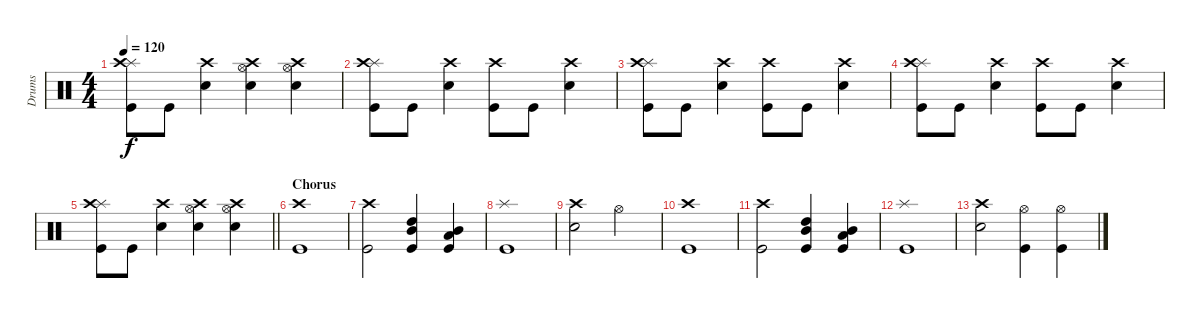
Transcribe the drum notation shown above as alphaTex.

\track ("Drums" "Drums") {instrument percussion}
\staff {score}
\articulation defaults
\ts (4 4)
\tempo 120
\clef neutral
\ks c
("Splash (hit)" "Crash high (hit)" "Kick (hit)").8{dy f} "Kick (hit)".8 ("Crash high (hit)" "Snare (hit) 2").4 ("Hi-Hat (open)" "Crash high (hit)" "Snare (hit) 2").4 ("Hi-Hat (open)" "Crash high (hit)" "Snare (hit) 2").4 |
("Splash (hit)" "Crash high (hit)" "Kick (hit)").8 "Kick (hit)".8 ("Crash high (hit)" "Snare (hit) 2").4 ("Crash high (hit)" "Kick (hit)").8 "Kick (hit)".8 ("Crash high (hit)" "Snare (hit) 2").4 |
("Splash (hit)" "Crash high (hit)" "Kick (hit)").8 "Kick (hit)".8 ("Crash high (hit)" "Snare (hit) 2").4 ("Crash high (hit)" "Kick (hit)").8 "Kick (hit)".8 ("Crash high (hit)" "Snare (hit) 2").4 |
("Splash (hit)" "Crash high (hit)" "Kick (hit)").8 "Kick (hit)".8 ("Crash high (hit)" "Snare (hit) 2").4 ("Crash high (hit)" "Kick (hit)").8 "Kick (hit)".8 ("Crash high (hit)" "Snare (hit) 2").4 |
\barLineRight lightlight
("Splash (hit)" "Crash high (hit)" "Kick (hit)").8 "Kick (hit)".8 ("Crash high (hit)" "Snare (hit) 2").4 ("Hi-Hat (open)" "Crash high (hit)" "Snare (hit) 2").4 ("Hi-Hat (open)" "Crash high (hit)" "Snare (hit) 2").4 |
\section ("" "Chorus")
("Crash high (hit)" "Kick (hit)").1 |
("Crash high (hit)" "Kick (hit)").2 ("High Tom (hit)" "Mid Tom (hit)" "Kick (hit)").4 ("Mid Tom (hit)" "Low Tom (hit)" "Kick (hit)").4 |
("Splash (hit)" "Kick (hit)").1 |
("Crash high (hit)" "Snare (hit) 2").2 "Hi-Hat (open)".2 |
("Crash high (hit)" "Kick (hit)").1 |
("Crash high (hit)" "Kick (hit)").2 ("High Tom (hit)" "Mid Tom (hit)" "Kick (hit)").4 ("Mid Tom (hit)" "Low Tom (hit)" "Kick (hit)").4 |
("Splash (hit)" "Kick (hit)").1 |
("Crash high (hit)" "Snare (hit) 2").2 ("Hi-Hat (open)" "Kick (hit)").4 ("Hi-Hat (open)" "Kick (hit)").4
